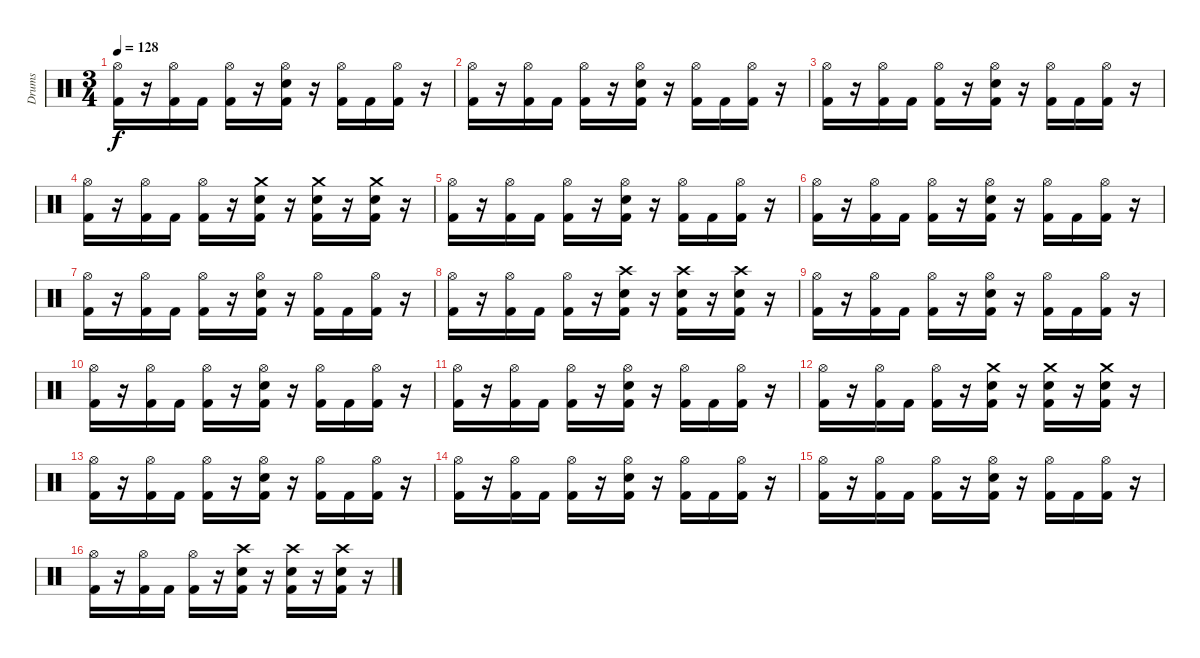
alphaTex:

\track ("Drums" "Drums") {instrument percussion}
\staff {score}
\articulation defaults
\ts (3 4)
\tempo 128
\clef neutral
\ks c
("Hi-Hat (open)" "Kick (hit) 2").16{dy f} r.16 ("Hi-Hat (open)" "Kick (hit) 2").16 "Kick (hit) 2".16 ("Hi-Hat (open)" "Kick (hit) 2").16 r.16 ("Hi-Hat (open)" "Snare (hit) 2" "Kick (hit) 2").16 r.16 ("Hi-Hat (open)" "Kick (hit) 2").16 "Kick (hit) 2".16 ("Hi-Hat (open)" "Kick (hit) 2").16 r.16 |
("Hi-Hat (open)" "Kick (hit) 2").16 r.16 ("Hi-Hat (open)" "Kick (hit) 2").16 "Kick (hit) 2".16 ("Hi-Hat (open)" "Kick (hit) 2").16 r.16 ("Hi-Hat (open)" "Snare (hit) 2" "Kick (hit) 2").16 r.16 ("Hi-Hat (open)" "Kick (hit) 2").16 "Kick (hit) 2".16 ("Hi-Hat (open)" "Kick (hit) 2").16 r.16 |
("Hi-Hat (open)" "Kick (hit) 2").16 r.16 ("Hi-Hat (open)" "Kick (hit) 2").16 "Kick (hit) 2".16 ("Hi-Hat (open)" "Kick (hit) 2").16 r.16 ("Hi-Hat (open)" "Snare (hit) 2" "Kick (hit) 2").16 r.16 ("Hi-Hat (open)" "Kick (hit) 2").16 "Kick (hit) 2".16 ("Hi-Hat (open)" "Kick (hit) 2").16 r.16 |
("Hi-Hat (open)" "Kick (hit) 2").16 r.16 ("Hi-Hat (open)" "Kick (hit) 2").16 "Kick (hit) 2".16 ("Hi-Hat (open)" "Kick (hit) 2").16 r.16 ("Crash medium (hit)" "Snare (hit) 2" "Kick (hit) 2").16 r.16 ("Crash medium (hit)" "Snare (hit) 2" "Kick (hit) 2").16 r.16 ("Crash medium (hit)" "Snare (hit) 2" "Kick (hit) 2").16 r.16 |
("Hi-Hat (open)" "Kick (hit) 2").16 r.16 ("Hi-Hat (open)" "Kick (hit) 2").16 "Kick (hit) 2".16 ("Hi-Hat (open)" "Kick (hit) 2").16 r.16 ("Hi-Hat (open)" "Snare (hit) 2" "Kick (hit) 2").16 r.16 ("Hi-Hat (open)" "Kick (hit) 2").16 "Kick (hit) 2".16 ("Hi-Hat (open)" "Kick (hit) 2").16 r.16 |
("Hi-Hat (open)" "Kick (hit) 2").16 r.16 ("Hi-Hat (open)" "Kick (hit) 2").16 "Kick (hit) 2".16 ("Hi-Hat (open)" "Kick (hit) 2").16 r.16 ("Hi-Hat (open)" "Snare (hit) 2" "Kick (hit) 2").16 r.16 ("Hi-Hat (open)" "Kick (hit) 2").16 "Kick (hit) 2".16 ("Hi-Hat (open)" "Kick (hit) 2").16 r.16 |
("Hi-Hat (open)" "Kick (hit) 2").16 r.16 ("Hi-Hat (open)" "Kick (hit) 2").16 "Kick (hit) 2".16 ("Hi-Hat (open)" "Kick (hit) 2").16 r.16 ("Hi-Hat (open)" "Snare (hit) 2" "Kick (hit) 2").16 r.16 ("Hi-Hat (open)" "Kick (hit) 2").16 "Kick (hit) 2".16 ("Hi-Hat (open)" "Kick (hit) 2").16 r.16 |
("Hi-Hat (open)" "Kick (hit) 2").16 r.16 ("Hi-Hat (open)" "Kick (hit) 2").16 "Kick (hit) 2".16 ("Hi-Hat (open)" "Kick (hit) 2").16 r.16 ("Crash high (hit)" "Snare (hit) 2" "Kick (hit) 2").16 r.16 ("Crash high (hit)" "Snare (hit) 2" "Kick (hit) 2").16 r.16 ("Crash high (hit)" "Snare (hit) 2" "Kick (hit) 2").16 r.16 |
("Hi-Hat (open)" "Kick (hit) 2").16 r.16 ("Hi-Hat (open)" "Kick (hit) 2").16 "Kick (hit) 2".16 ("Hi-Hat (open)" "Kick (hit) 2").16 r.16 ("Hi-Hat (open)" "Snare (hit) 2" "Kick (hit) 2").16 r.16 ("Hi-Hat (open)" "Kick (hit) 2").16 "Kick (hit) 2".16 ("Hi-Hat (open)" "Kick (hit) 2").16 r.16 |
("Hi-Hat (open)" "Kick (hit) 2").16 r.16 ("Hi-Hat (open)" "Kick (hit) 2").16 "Kick (hit) 2".16 ("Hi-Hat (open)" "Kick (hit) 2").16 r.16 ("Hi-Hat (open)" "Snare (hit) 2" "Kick (hit) 2").16 r.16 ("Hi-Hat (open)" "Kick (hit) 2").16 "Kick (hit) 2".16 ("Hi-Hat (open)" "Kick (hit) 2").16 r.16 |
("Hi-Hat (open)" "Kick (hit) 2").16 r.16 ("Hi-Hat (open)" "Kick (hit) 2").16 "Kick (hit) 2".16 ("Hi-Hat (open)" "Kick (hit) 2").16 r.16 ("Hi-Hat (open)" "Snare (hit) 2" "Kick (hit) 2").16 r.16 ("Hi-Hat (open)" "Kick (hit) 2").16 "Kick (hit) 2".16 ("Hi-Hat (open)" "Kick (hit) 2").16 r.16 |
("Hi-Hat (open)" "Kick (hit) 2").16 r.16 ("Hi-Hat (open)" "Kick (hit) 2").16 "Kick (hit) 2".16 ("Hi-Hat (open)" "Kick (hit) 2").16 r.16 ("Crash medium (hit)" "Snare (hit) 2" "Kick (hit) 2").16 r.16 ("Crash medium (hit)" "Snare (hit) 2" "Kick (hit) 2").16 r.16 ("Crash medium (hit)" "Snare (hit) 2" "Kick (hit) 2").16 r.16 |
("Hi-Hat (open)" "Kick (hit) 2").16 r.16 ("Hi-Hat (open)" "Kick (hit) 2").16 "Kick (hit) 2".16 ("Hi-Hat (open)" "Kick (hit) 2").16 r.16 ("Hi-Hat (open)" "Snare (hit) 2" "Kick (hit) 2").16 r.16 ("Hi-Hat (open)" "Kick (hit) 2").16 "Kick (hit) 2".16 ("Hi-Hat (open)" "Kick (hit) 2").16 r.16 |
("Hi-Hat (open)" "Kick (hit) 2").16 r.16 ("Hi-Hat (open)" "Kick (hit) 2").16 "Kick (hit) 2".16 ("Hi-Hat (open)" "Kick (hit) 2").16 r.16 ("Hi-Hat (open)" "Snare (hit) 2" "Kick (hit) 2").16 r.16 ("Hi-Hat (open)" "Kick (hit) 2").16 "Kick (hit) 2".16 ("Hi-Hat (open)" "Kick (hit) 2").16 r.16 |
("Hi-Hat (open)" "Kick (hit) 2").16 r.16 ("Hi-Hat (open)" "Kick (hit) 2").16 "Kick (hit) 2".16 ("Hi-Hat (open)" "Kick (hit) 2").16 r.16 ("Hi-Hat (open)" "Snare (hit) 2" "Kick (hit) 2").16 r.16 ("Hi-Hat (open)" "Kick (hit) 2").16 "Kick (hit) 2".16 ("Hi-Hat (open)" "Kick (hit) 2").16 r.16 |
("Hi-Hat (open)" "Kick (hit) 2").16 r.16 ("Hi-Hat (open)" "Kick (hit) 2").16 "Kick (hit) 2".16 ("Hi-Hat (open)" "Kick (hit) 2").16 r.16 ("Crash high (hit)" "Snare (hit) 2" "Kick (hit) 2").16 r.16 ("Crash high (hit)" "Snare (hit) 2" "Kick (hit) 2").16 r.16 ("Crash high (hit)" "Snare (hit) 2" "Kick (hit) 2").16 r.16
